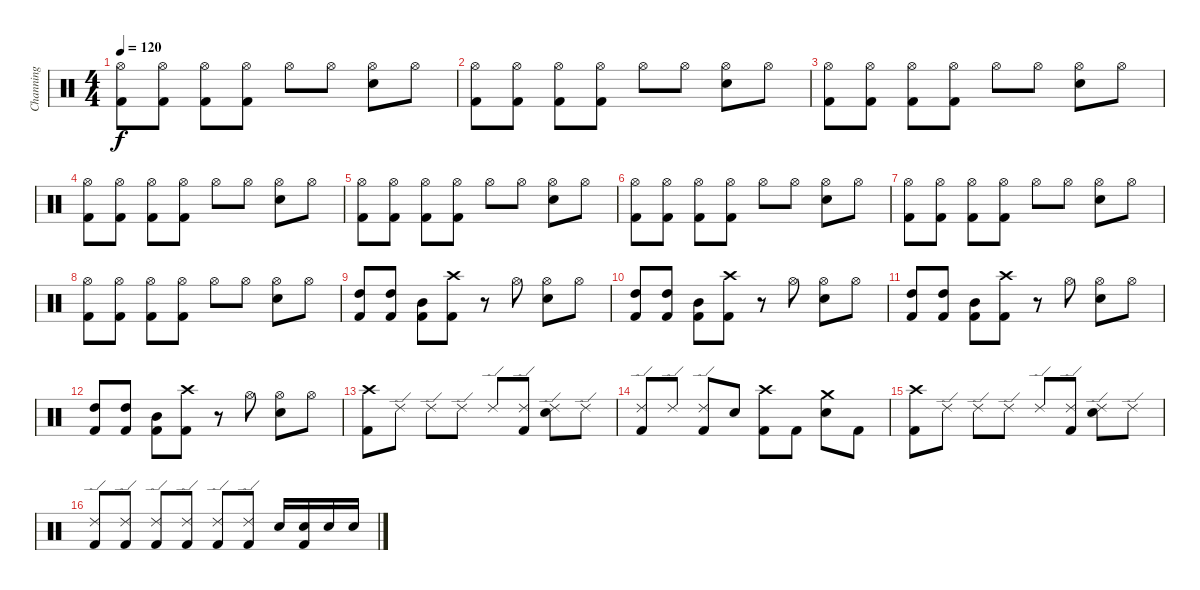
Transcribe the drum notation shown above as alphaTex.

\track ("Channing" "Channing") {instrument percussion}
\staff {score}
\articulation defaults
\ts (4 4)
\tempo 120
\clef neutral
\ks c
("Hi-Hat (open)" "Kick (hit) 2").8{dy f} ("Hi-Hat (open)" "Kick (hit) 2").8 ("Hi-Hat (open)" "Kick (hit) 2").8 ("Hi-Hat (open)" "Kick (hit) 2").8 "Hi-Hat (open)".8 "Hi-Hat (open)".8 ("Hi-Hat (open)" "Snare (hit) 2").8 "Hi-Hat (open)".8 |
("Hi-Hat (open)" "Kick (hit) 2").8 ("Hi-Hat (open)" "Kick (hit) 2").8 ("Hi-Hat (open)" "Kick (hit) 2").8 ("Hi-Hat (open)" "Kick (hit) 2").8 "Hi-Hat (open)".8 "Hi-Hat (open)".8 ("Hi-Hat (open)" "Snare (hit) 2").8 "Hi-Hat (open)".8 |
("Hi-Hat (open)" "Kick (hit) 2").8 ("Hi-Hat (open)" "Kick (hit) 2").8 ("Hi-Hat (open)" "Kick (hit) 2").8 ("Hi-Hat (open)" "Kick (hit) 2").8 "Hi-Hat (open)".8 "Hi-Hat (open)".8 ("Hi-Hat (open)" "Snare (hit) 2").8 "Hi-Hat (open)".8 |
("Hi-Hat (open)" "Kick (hit) 2").8 ("Hi-Hat (open)" "Kick (hit) 2").8 ("Hi-Hat (open)" "Kick (hit) 2").8 ("Hi-Hat (open)" "Kick (hit) 2").8 "Hi-Hat (open)".8 "Hi-Hat (open)".8 ("Hi-Hat (open)" "Snare (hit) 2").8 "Hi-Hat (open)".8 |
("Hi-Hat (open)" "Kick (hit) 2").8 ("Hi-Hat (open)" "Kick (hit) 2").8 ("Hi-Hat (open)" "Kick (hit) 2").8 ("Hi-Hat (open)" "Kick (hit) 2").8 "Hi-Hat (open)".8 "Hi-Hat (open)".8 ("Hi-Hat (open)" "Snare (hit) 2").8 "Hi-Hat (open)".8 |
("Hi-Hat (open)" "Kick (hit) 2").8 ("Hi-Hat (open)" "Kick (hit) 2").8 ("Hi-Hat (open)" "Kick (hit) 2").8 ("Hi-Hat (open)" "Kick (hit) 2").8 "Hi-Hat (open)".8 "Hi-Hat (open)".8 ("Hi-Hat (open)" "Snare (hit) 2").8 "Hi-Hat (open)".8 |
("Hi-Hat (open)" "Kick (hit) 2").8 ("Hi-Hat (open)" "Kick (hit) 2").8 ("Hi-Hat (open)" "Kick (hit) 2").8 ("Hi-Hat (open)" "Kick (hit) 2").8 "Hi-Hat (open)".8 "Hi-Hat (open)".8 ("Hi-Hat (open)" "Snare (hit) 2").8 "Hi-Hat (open)".8 |
("Hi-Hat (open)" "Kick (hit) 2").8 ("Hi-Hat (open)" "Kick (hit) 2").8 ("Hi-Hat (open)" "Kick (hit) 2").8 ("Hi-Hat (open)" "Kick (hit) 2").8 "Hi-Hat (open)".8 "Hi-Hat (open)".8 ("Hi-Hat (open)" "Snare (hit) 2").8 "Hi-Hat (open)".8 |
("High Tom (hit)" "Kick (hit) 2").8 ("High Tom (hit)" "Kick (hit) 2").8 ("Mid Tom (hit)" "Kick (hit) 2").8 ("Crash high (hit)" "Kick (hit) 2").8 r.8 "Hi-Hat (open)".8 ("Hi-Hat (open)" "Snare (hit) 2").8 "Hi-Hat (open)".8 |
("High Tom (hit)" "Kick (hit) 2").8 ("High Tom (hit)" "Kick (hit) 2").8 ("Mid Tom (hit)" "Kick (hit) 2").8 ("Crash high (hit)" "Kick (hit) 2").8 r.8 "Hi-Hat (open)".8 ("Hi-Hat (open)" "Snare (hit) 2").8 "Hi-Hat (open)".8 |
("High Tom (hit)" "Kick (hit) 2").8 ("High Tom (hit)" "Kick (hit) 2").8 ("Mid Tom (hit)" "Kick (hit) 2").8 ("Crash high (hit)" "Kick (hit) 2").8 r.8 "Hi-Hat (open)".8 ("Hi-Hat (open)" "Snare (hit) 2").8 "Hi-Hat (open)".8 |
("High Tom (hit)" "Kick (hit) 2").8 ("High Tom (hit)" "Kick (hit) 2").8 ("Mid Tom (hit)" "Kick (hit) 2").8 ("Crash high (hit)" "Kick (hit) 2").8 r.8 "Hi-Hat (open)".8 ("Hi-Hat (open)" "Snare (hit) 2").8 "Hi-Hat (open)".8 |
("Crash high (hit)" "Kick (hit) 2").8 "Ride (edge) 2".8 "Ride (edge) 2".8 "Ride (edge) 2".8 "Ride (edge) 2".8 ("Ride (edge) 2" "Kick (hit) 2").8 ("Ride (edge) 2" "Snare (hit) 2").8 "Ride (edge) 2".8 |
("Ride (edge) 2" "Kick (hit) 2").8 "Ride (edge) 2".8 ("Ride (edge) 2" "Kick (hit) 2").8 "Snare (hit) 2".8 ("Crash high (hit)" "Kick (hit) 2").8 "Kick (hit) 2".8 ("Crash medium (hit)" "Snare (hit) 2").8 "Kick (hit) 2".8 |
("Crash high (hit)" "Kick (hit) 2").8 "Ride (edge) 2".8 "Ride (edge) 2".8 "Ride (edge) 2".8 "Ride (edge) 2".8 ("Ride (edge) 2" "Kick (hit) 2").8 ("Ride (edge) 2" "Snare (hit) 2").8 "Ride (edge) 2".8 |
("Ride (edge) 2" "Kick (hit) 2").8 ("Ride (edge) 2" "Kick (hit) 2").8 ("Ride (edge) 2" "Kick (hit) 2").8 ("Ride (edge) 2" "Kick (hit) 2").8 ("Ride (edge) 2" "Kick (hit) 2").8 ("Ride (edge) 2" "Kick (hit) 2").8 "Snare (hit) 2".16 ("Snare (hit) 2" "Kick (hit) 2").16 "Snare (hit) 2".16 "Snare (hit) 2".16
